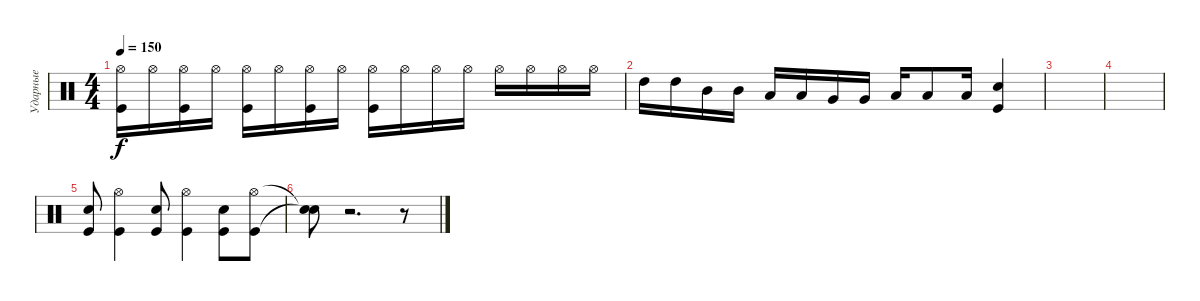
\track ("Ударные" "Ударные") {instrument percussion}
\staff {score}
\articulation defaults
\ts (4 4)
\tempo 150
\clef neutral
\ks c
("Hi-Hat (open)" "Kick (hit)").16{dy f} "Hi-Hat (open)".16 ("Hi-Hat (open)" "Kick (hit)").16 "Hi-Hat (open)".16 ("Hi-Hat (open)" "Kick (hit)").16 "Hi-Hat (open)".16 ("Hi-Hat (open)" "Kick (hit)").16 "Hi-Hat (open)".16 ("Hi-Hat (open)" "Kick (hit)").16 "Hi-Hat (open)".16 "Hi-Hat (open)".16 "Hi-Hat (open)".16 "Hi-Hat (open)".16 "Hi-Hat (open)".16 "Hi-Hat (open)".16 "Hi-Hat (open)".16 |
"High Tom (hit)".16 "High Tom (hit)".16 "Mid Tom (hit)".16 "Mid Tom (hit)".16 "Low Tom (hit)".16 "Low Tom (hit)".16 "Very Low Tom (hit)".16 "Very Low Tom (hit)".16 "Low Floor Tom (hit)".16 "Low Floor Tom (hit)".8 "Low Floor Tom (hit)".16 ("Kick (hit)" "Snare (hit) 2").4 |
|
|
("Kick (hit)" "Snare (hit) 2").8 ("Hi-Hat (open)" "Kick (hit)").4 ("Kick (hit)" "Snare (hit) 2").8 ("Hi-Hat (open)" "Kick (hit)").4 ("Kick (hit)" "Snare (hit) 2").8 ("Hi-Hat (open)" "Kick (hit)").8 |
("Snare (hit)"{t} "Snare (hit)"{t}).8 r.2{d} r.8
